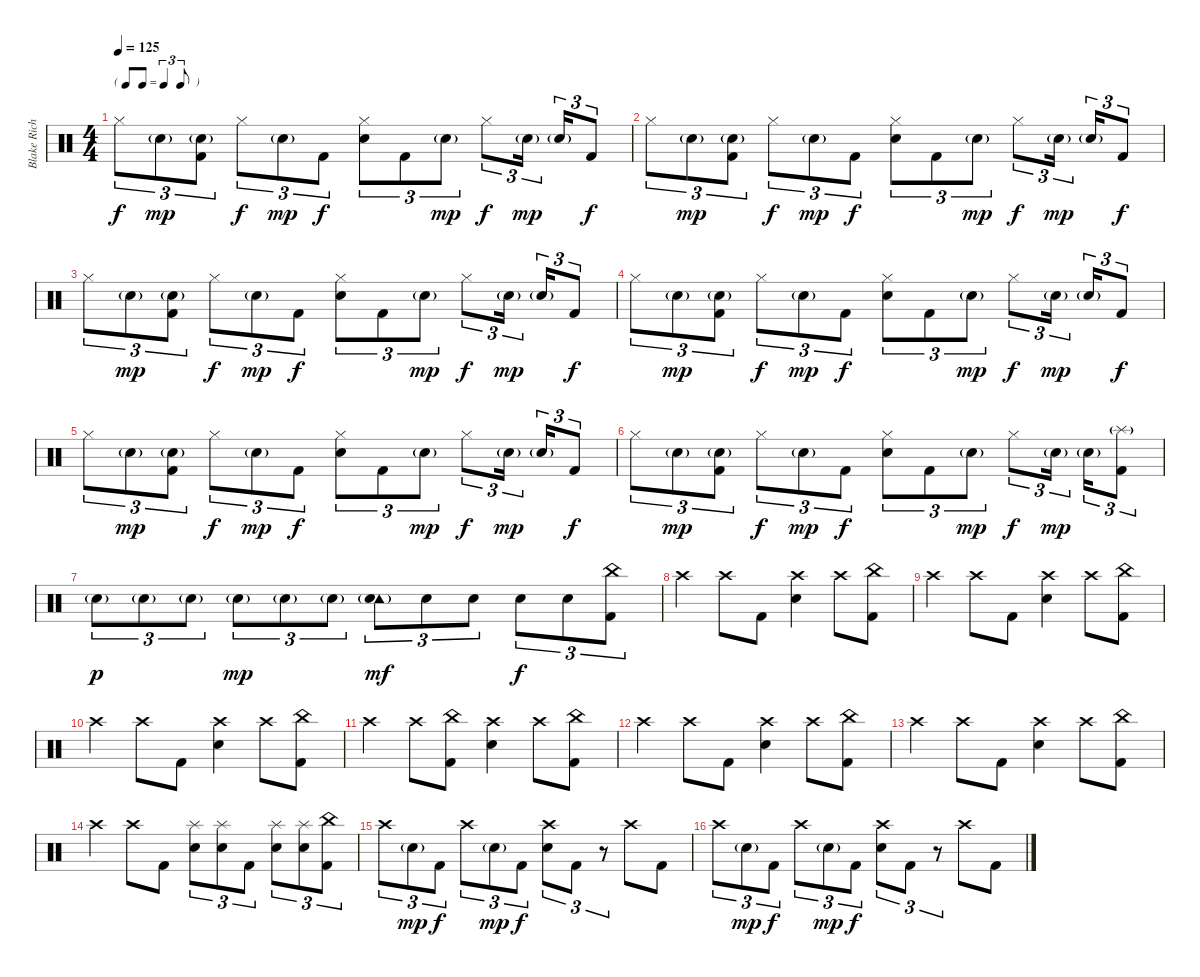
\track ("Blake Richardson - Drums" "Blake Rich") {instrument percussion}
\staff {score}
\articulation defaults
\ts (4 4)
\tf triplet8th
\tempo 125
\clef neutral
\ks c "Hi-Hat (closed)".8{tu (3 2) dy f} "Electric Snare (hit)"{g}.8{tu (3 2) dy mp}
("Electric Snare (hit)"{g} "Kick (hit) 2").8{tu (3 2)} "Hi-Hat (closed)".8{tu (3 2) dy f} "Electric Snare (hit)"{g}.8{tu (3 2) dy mp} "Kick (hit) 2".8{tu (3 2) dy f} ("Hi-Hat (closed)" "Electric Snare (hit)").8{tu (3 2)} "Kick (hit) 2".8{tu (3 2)} "Electric Snare (hit)"{g}.8{tu (3 2) dy mp} "Hi-Hat (closed)".8{tu (3 2) dy f} "Electric Snare (hit)"{g}.16{tu (3 2) dy mp} "Electric Snare (hit)"{g}.16{tu (3 2)} "Kick (hit) 2".8{tu (3 2) dy f} |
"Hi-Hat (closed)".8{tu (3 2)} "Electric Snare (hit)"{g}.8{tu (3 2) dy mp} ("Electric Snare (hit)"{g} "Kick (hit) 2").8{tu (3 2)} "Hi-Hat (closed)".8{tu (3 2) dy f} "Electric Snare (hit)"{g}.8{tu (3 2) dy mp} "Kick (hit) 2".8{tu (3 2) dy f} ("Hi-Hat (closed)" "Electric Snare (hit)").8{tu (3 2)} "Kick (hit) 2".8{tu (3 2)} "Electric Snare (hit)"{g}.8{tu (3 2) dy mp} "Hi-Hat (closed)".8{tu (3 2) dy f} "Electric Snare (hit)"{g}.16{tu (3 2) dy mp} "Electric Snare (hit)"{g}.16{tu (3 2)} "Kick (hit) 2".8{tu (3 2) dy f} |
"Hi-Hat (closed)".8{tu (3 2)} "Electric Snare (hit)"{g}.8{tu (3 2) dy mp} ("Electric Snare (hit)"{g} "Kick (hit) 2").8{tu (3 2)} "Hi-Hat (closed)".8{tu (3 2) dy f} "Electric Snare (hit)"{g}.8{tu (3 2) dy mp} "Kick (hit) 2".8{tu (3 2) dy f} ("Hi-Hat (closed)" "Electric Snare (hit)").8{tu (3 2)} "Kick (hit) 2".8{tu (3 2)} "Electric Snare (hit)"{g}.8{tu (3 2) dy mp} "Hi-Hat (closed)".8{tu (3 2) dy f} "Electric Snare (hit)"{g}.16{tu (3 2) dy mp} "Electric Snare (hit)"{g}.16{tu (3 2)} "Kick (hit) 2".8{tu (3 2) dy f} |
"Hi-Hat (closed)".8{tu (3 2)} "Electric Snare (hit)"{g}.8{tu (3 2) dy mp} ("Electric Snare (hit)"{g} "Kick (hit) 2").8{tu (3 2)} "Hi-Hat (closed)".8{tu (3 2) dy f} "Electric Snare (hit)"{g}.8{tu (3 2) dy mp} "Kick (hit) 2".8{tu (3 2) dy f} ("Hi-Hat (closed)" "Electric Snare (hit)").8{tu (3 2)} "Kick (hit) 2".8{tu (3 2)} "Electric Snare (hit)"{g}.8{tu (3 2) dy mp} "Hi-Hat (closed)".8{tu (3 2) dy f} "Electric Snare (hit)"{g}.16{tu (3 2) dy mp} "Electric Snare (hit)"{g}.16{tu (3 2)} "Kick (hit) 2".8{tu (3 2) dy f} |
"Hi-Hat (closed)".8{tu (3 2)} "Electric Snare (hit)"{g}.8{tu (3 2) dy mp} ("Electric Snare (hit)"{g} "Kick (hit) 2").8{tu (3 2)} "Hi-Hat (closed)".8{tu (3 2) dy f} "Electric Snare (hit)"{g}.8{tu (3 2) dy mp} "Kick (hit) 2".8{tu (3 2) dy f} ("Hi-Hat (closed)" "Electric Snare (hit)").8{tu (3 2)} "Kick (hit) 2".8{tu (3 2)} "Electric Snare (hit)"{g}.8{tu (3 2) dy mp} "Hi-Hat (closed)".8{tu (3 2) dy f} "Electric Snare (hit)"{g}.16{tu (3 2) dy mp} "Electric Snare (hit)"{g}.16{tu (3 2)} "Kick (hit) 2".8{tu (3 2) dy f} |
"Hi-Hat (closed)".8{tu (3 2)} "Electric Snare (hit)"{g}.8{tu (3 2) dy mp} ("Electric Snare (hit)"{g} "Kick (hit) 2").8{tu (3 2)} "Hi-Hat (closed)".8{tu (3 2) dy f} "Electric Snare (hit)"{g}.8{tu (3 2) dy mp} "Kick (hit) 2".8{tu (3 2) dy f} ("Hi-Hat (closed)" "Electric Snare (hit)").8{tu (3 2)} "Kick (hit) 2".8{tu (3 2)} "Electric Snare (hit)"{g}.8{tu (3 2) dy mp} "Hi-Hat (closed)".8{tu (3 2) dy f} "Electric Snare (hit)"{g}.16{tu (3 2) dy mp} "Electric Snare (hit)"{g}.16{tu (3 2)} ("Splash (hit)"{g} "Kick (hit) 2").8{tu (3 2)} |
"Electric Snare (hit)"{g}.8{tu (3 2) dy p} "Electric Snare (hit)"{g}.8{tu (3 2)} "Electric Snare (hit)"{g}.8{tu (3 2)} "Electric Snare (hit)"{g}.8{tu (3 2) dy mp} "Electric Snare (hit)"{g}.8{tu (3 2)} "Electric Snare (hit)"{g}.8{tu (3 2)} ("Tambourine (hit)"{g} "Electric Snare (hit)").8{tu (3 2) dy mf} "Electric Snare (hit)".8{tu (3 2)} "Electric Snare (hit)".8{tu (3 2)} "Electric Snare (hit)".8{tu (3 2) dy f} "Electric Snare (hit)".8{tu (3 2)} ("China (hit)" "Kick (hit) 2").8{tu (3 2)} |
"Crash high (hit)".4 "Crash high (hit)".8 "Kick (hit) 2".8 ("Crash high (hit)" "Electric Snare (hit)").4 "Crash high (hit)".8 ("China (hit)" "Kick (hit) 2").8 |
"Crash high (hit)".4 "Crash high (hit)".8 "Kick (hit) 2".8 ("Crash high (hit)" "Electric Snare (hit)").4 "Crash high (hit)".8 ("China (hit)" "Kick (hit) 2").8 |
"Crash high (hit)".4 "Crash high (hit)".8 "Kick (hit) 2".8 ("Crash high (hit)" "Electric Snare (hit)").4 "Crash high (hit)".8 ("China (hit)" "Kick (hit) 2").8 |
"Crash high (hit)".4 "Crash high (hit)".8 ("China (hit)" "Kick (hit) 2").8 ("Crash high (hit)" "Electric Snare (hit)").4 "Crash high (hit)".8 ("China (hit)" "Kick (hit) 2").8 |
"Crash high (hit)".4 "Crash high (hit)".8 "Kick (hit) 2".8 ("Crash high (hit)" "Electric Snare (hit)").4 "Crash high (hit)".8 ("China (hit)" "Kick (hit) 2").8 |
"Crash high (hit)".4 "Crash high (hit)".8 "Kick (hit) 2".8 ("Crash high (hit)" "Electric Snare (hit)").4 "Crash high (hit)".8 ("China (hit)" "Kick (hit) 2").8 |
"Crash high (hit)".4 "Crash high (hit)".8 "Kick (hit) 2".8 ("Splash (hit)" "Electric Snare (hit)").8{tu (3 2)} ("Splash (hit)" "Electric Snare (hit)").8{tu (3 2)} "Kick (hit) 2".8{tu (3 2)} ("Splash (hit)" "Electric Snare (hit)").8{tu (3 2)} ("Splash (hit)" "Electric Snare (hit)").8{tu (3 2)} ("China (hit)" "Kick (hit) 2").8{tu (3 2)} |
"Crash high (hit)".8{tu (3 2)} "Electric Snare (hit)"{g}.8{tu (3 2) dy mp} "Kick (hit) 2".8{tu (3 2) dy f} "Crash high (hit)".8{tu (3 2)} "Electric Snare (hit)"{g}.8{tu (3 2) dy mp} "Kick (hit) 2".8{tu (3 2) dy f} ("Crash high (hit)" "Electric Snare (hit)").8{tu (3 2)} "Kick (hit) 2".8{tu (3 2)} r.8{tu (3 2)} "Crash high (hit)".8 "Kick (hit) 2".8 |
"Crash high (hit)".8{tu (3 2)} "Electric Snare (hit)"{g}.8{tu (3 2) dy mp} "Kick (hit) 2".8{tu (3 2) dy f} "Crash high (hit)".8{tu (3 2)} "Electric Snare (hit)"{g}.8{tu (3 2) dy mp} "Kick (hit) 2".8{tu (3 2) dy f} ("Crash high (hit)" "Electric Snare (hit)").8{tu (3 2)} "Kick (hit) 2".8{tu (3 2)} r.8{tu (3 2)} "Crash high (hit)".8 "Kick (hit) 2".8
